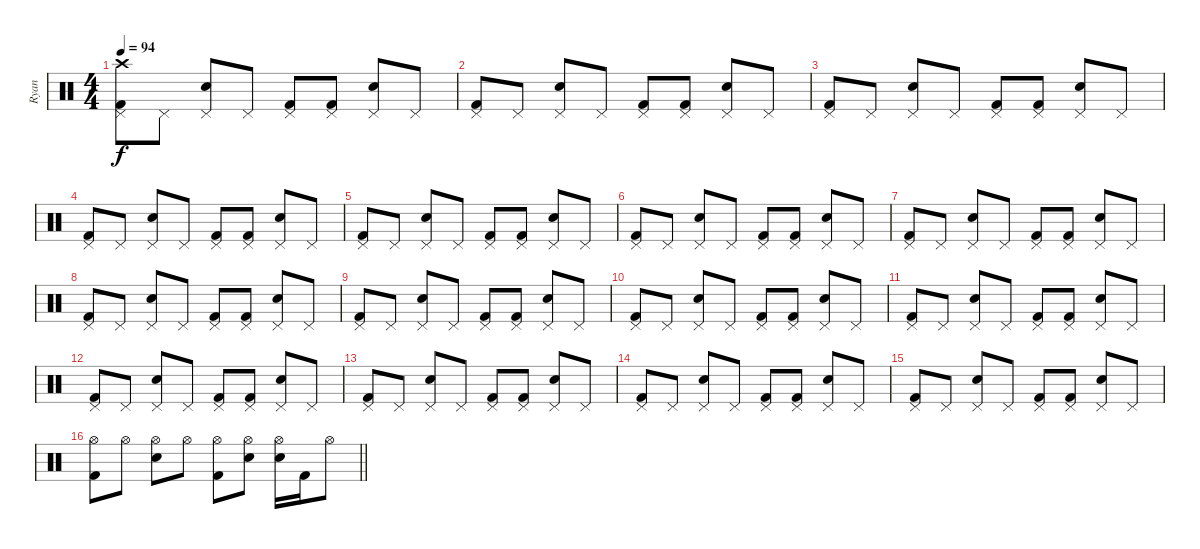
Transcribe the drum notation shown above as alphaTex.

\track ("Ryan" "Ryan") {instrument percussion}
\staff {score}
\articulation defaults
\ts (4 4)
\tempo 94
\clef neutral
\ks c
("Crash high (hit)" "Pedal Hi-Hat (hit)" "Kick (hit) 2").8{dy f} "Pedal Hi-Hat (hit)".8 ("Pedal Hi-Hat (hit)" "Electric Snare (hit)").8 "Pedal Hi-Hat (hit)".8 ("Pedal Hi-Hat (hit)" "Kick (hit) 2").8 ("Pedal Hi-Hat (hit)" "Kick (hit) 2").8 ("Pedal Hi-Hat (hit)" "Electric Snare (hit)").8 "Pedal Hi-Hat (hit)".8 |
("Pedal Hi-Hat (hit)" "Kick (hit) 2").8 "Pedal Hi-Hat (hit)".8 ("Pedal Hi-Hat (hit)" "Electric Snare (hit)").8 "Pedal Hi-Hat (hit)".8 ("Pedal Hi-Hat (hit)" "Kick (hit) 2").8 ("Pedal Hi-Hat (hit)" "Kick (hit) 2").8 ("Pedal Hi-Hat (hit)" "Electric Snare (hit)").8 "Pedal Hi-Hat (hit)".8 |
("Pedal Hi-Hat (hit)" "Kick (hit) 2").8 "Pedal Hi-Hat (hit)".8 ("Pedal Hi-Hat (hit)" "Electric Snare (hit)").8 "Pedal Hi-Hat (hit)".8 ("Pedal Hi-Hat (hit)" "Kick (hit) 2").8 ("Pedal Hi-Hat (hit)" "Kick (hit) 2").8 ("Pedal Hi-Hat (hit)" "Electric Snare (hit)").8 "Pedal Hi-Hat (hit)".8 |
("Pedal Hi-Hat (hit)" "Kick (hit) 2").8 "Pedal Hi-Hat (hit)".8 ("Pedal Hi-Hat (hit)" "Electric Snare (hit)").8 "Pedal Hi-Hat (hit)".8 ("Pedal Hi-Hat (hit)" "Kick (hit) 2").8 ("Pedal Hi-Hat (hit)" "Kick (hit) 2").8 ("Pedal Hi-Hat (hit)" "Electric Snare (hit)").8 "Pedal Hi-Hat (hit)".8 |
("Pedal Hi-Hat (hit)" "Kick (hit) 2").8 "Pedal Hi-Hat (hit)".8 ("Pedal Hi-Hat (hit)" "Electric Snare (hit)").8 "Pedal Hi-Hat (hit)".8 ("Pedal Hi-Hat (hit)" "Kick (hit) 2").8 ("Pedal Hi-Hat (hit)" "Kick (hit) 2").8 ("Pedal Hi-Hat (hit)" "Electric Snare (hit)").8 "Pedal Hi-Hat (hit)".8 |
("Pedal Hi-Hat (hit)" "Kick (hit) 2").8 "Pedal Hi-Hat (hit)".8 ("Pedal Hi-Hat (hit)" "Electric Snare (hit)").8 "Pedal Hi-Hat (hit)".8 ("Pedal Hi-Hat (hit)" "Kick (hit) 2").8 ("Pedal Hi-Hat (hit)" "Kick (hit) 2").8 ("Pedal Hi-Hat (hit)" "Electric Snare (hit)").8 "Pedal Hi-Hat (hit)".8 |
("Pedal Hi-Hat (hit)" "Kick (hit) 2").8 "Pedal Hi-Hat (hit)".8 ("Pedal Hi-Hat (hit)" "Electric Snare (hit)").8 "Pedal Hi-Hat (hit)".8 ("Pedal Hi-Hat (hit)" "Kick (hit) 2").8 ("Pedal Hi-Hat (hit)" "Kick (hit) 2").8 ("Pedal Hi-Hat (hit)" "Electric Snare (hit)").8 "Pedal Hi-Hat (hit)".8 |
("Pedal Hi-Hat (hit)" "Kick (hit) 2").8 "Pedal Hi-Hat (hit)".8 ("Pedal Hi-Hat (hit)" "Electric Snare (hit)").8 "Pedal Hi-Hat (hit)".8 ("Pedal Hi-Hat (hit)" "Kick (hit) 2").8 ("Pedal Hi-Hat (hit)" "Kick (hit) 2").8 ("Pedal Hi-Hat (hit)" "Electric Snare (hit)").8 "Pedal Hi-Hat (hit)".8 |
("Pedal Hi-Hat (hit)" "Kick (hit) 2").8 "Pedal Hi-Hat (hit)".8 ("Pedal Hi-Hat (hit)" "Electric Snare (hit)").8 "Pedal Hi-Hat (hit)".8 ("Pedal Hi-Hat (hit)" "Kick (hit) 2").8 ("Pedal Hi-Hat (hit)" "Kick (hit) 2").8 ("Pedal Hi-Hat (hit)" "Electric Snare (hit)").8 "Pedal Hi-Hat (hit)".8 |
("Pedal Hi-Hat (hit)" "Kick (hit) 2").8 "Pedal Hi-Hat (hit)".8 ("Pedal Hi-Hat (hit)" "Electric Snare (hit)").8 "Pedal Hi-Hat (hit)".8 ("Pedal Hi-Hat (hit)" "Kick (hit) 2").8 ("Pedal Hi-Hat (hit)" "Kick (hit) 2").8 ("Pedal Hi-Hat (hit)" "Electric Snare (hit)").8 "Pedal Hi-Hat (hit)".8 |
("Pedal Hi-Hat (hit)" "Kick (hit) 2").8 "Pedal Hi-Hat (hit)".8 ("Pedal Hi-Hat (hit)" "Electric Snare (hit)").8 "Pedal Hi-Hat (hit)".8 ("Pedal Hi-Hat (hit)" "Kick (hit) 2").8 ("Pedal Hi-Hat (hit)" "Kick (hit) 2").8 ("Pedal Hi-Hat (hit)" "Electric Snare (hit)").8 "Pedal Hi-Hat (hit)".8 |
("Pedal Hi-Hat (hit)" "Kick (hit) 2").8 "Pedal Hi-Hat (hit)".8 ("Pedal Hi-Hat (hit)" "Electric Snare (hit)").8 "Pedal Hi-Hat (hit)".8 ("Pedal Hi-Hat (hit)" "Kick (hit) 2").8 ("Pedal Hi-Hat (hit)" "Kick (hit) 2").8 ("Pedal Hi-Hat (hit)" "Electric Snare (hit)").8 "Pedal Hi-Hat (hit)".8 |
("Pedal Hi-Hat (hit)" "Kick (hit) 2").8 "Pedal Hi-Hat (hit)".8 ("Pedal Hi-Hat (hit)" "Electric Snare (hit)").8 "Pedal Hi-Hat (hit)".8 ("Pedal Hi-Hat (hit)" "Kick (hit) 2").8 ("Pedal Hi-Hat (hit)" "Kick (hit) 2").8 ("Pedal Hi-Hat (hit)" "Electric Snare (hit)").8 "Pedal Hi-Hat (hit)".8 |
("Pedal Hi-Hat (hit)" "Kick (hit) 2").8 "Pedal Hi-Hat (hit)".8 ("Pedal Hi-Hat (hit)" "Electric Snare (hit)").8 "Pedal Hi-Hat (hit)".8 ("Pedal Hi-Hat (hit)" "Kick (hit) 2").8 ("Pedal Hi-Hat (hit)" "Kick (hit) 2").8 ("Pedal Hi-Hat (hit)" "Electric Snare (hit)").8 "Pedal Hi-Hat (hit)".8 |
("Pedal Hi-Hat (hit)" "Kick (hit) 2").8 "Pedal Hi-Hat (hit)".8 ("Pedal Hi-Hat (hit)" "Electric Snare (hit)").8 "Pedal Hi-Hat (hit)".8 ("Pedal Hi-Hat (hit)" "Kick (hit) 2").8 ("Pedal Hi-Hat (hit)" "Kick (hit) 2").8 ("Pedal Hi-Hat (hit)" "Electric Snare (hit)").8 "Pedal Hi-Hat (hit)".8 |
\barLineRight lightlight
("Hi-Hat (open)" "Kick (hit) 2").8 "Hi-Hat (open)".8 ("Hi-Hat (open)" "Electric Snare (hit)").8 "Hi-Hat (open)".8 ("Hi-Hat (open)" "Kick (hit) 2").8 ("Hi-Hat (open)" "Electric Snare (hit)").8 ("Hi-Hat (open)" "Electric Snare (hit)").16 "Kick (hit) 2".16 "Hi-Hat (open)".8
